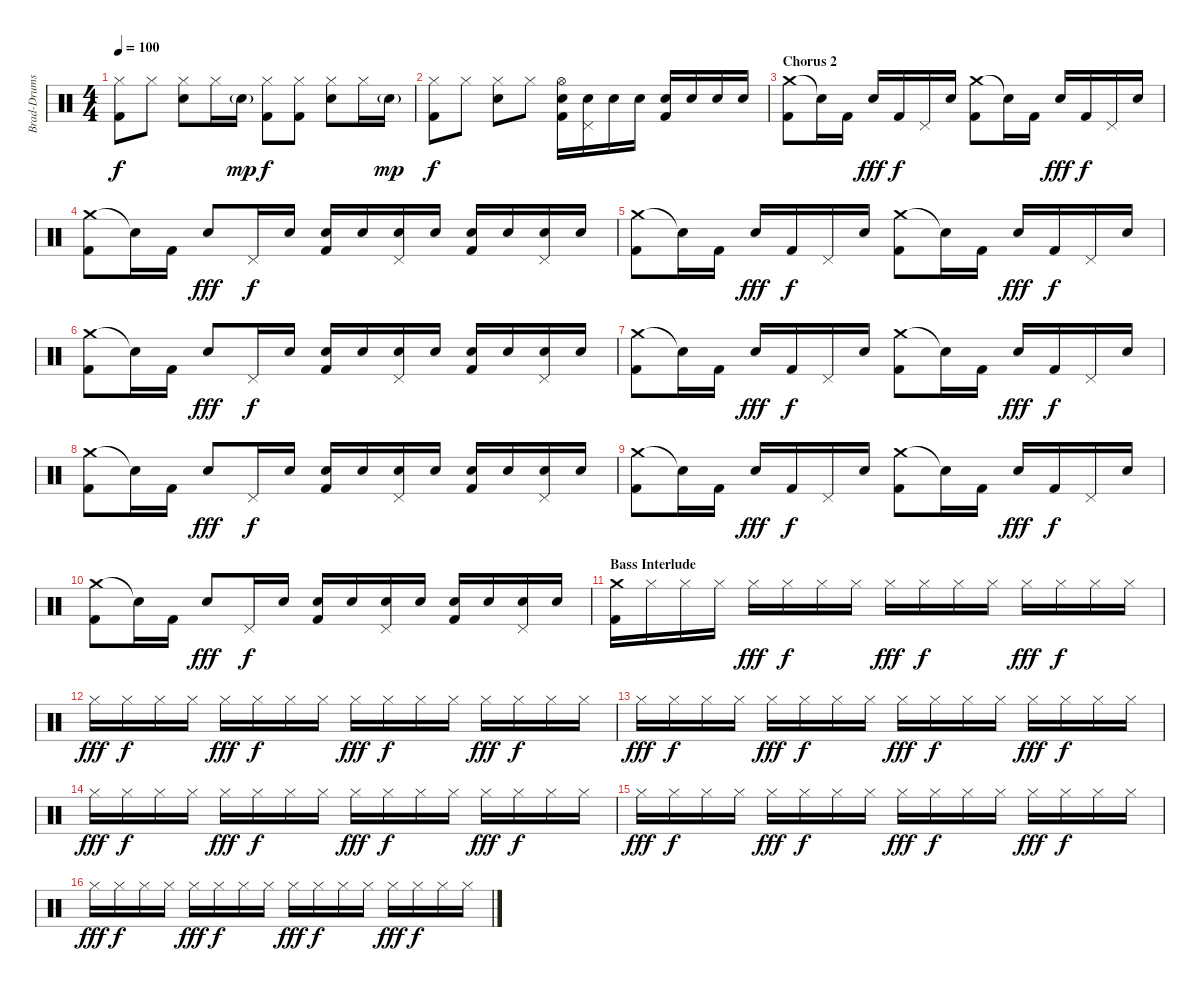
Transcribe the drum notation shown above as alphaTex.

\track ("Brad-Drums" "Brad-Drums") {instrument percussion}
\staff {score}
\articulation defaults
\ts (4 4)
\tempo 100
\clef neutral
\ks c
("Hi-Hat (closed)" "Kick (hit) 2").8{dy f} "Hi-Hat (closed)".8 ("Hi-Hat (closed)" "Electric Snare (hit)").8 "Hi-Hat (closed)".16 "Electric Snare (hit)"{g}.16{dy mp} ("Hi-Hat (closed)" "Kick (hit) 2").8{dy f} ("Hi-Hat (closed)" "Kick (hit) 2").8 ("Hi-Hat (closed)" "Electric Snare (hit)").8 "Hi-Hat (closed)".16 "Electric Snare (hit)"{g}.16{dy mp} |
("Hi-Hat (closed)" "Kick (hit) 2").8{dy f} "Hi-Hat (closed)".8 ("Hi-Hat (closed)" "Electric Snare (hit)").8 "Hi-Hat (closed)".8 ("Hi-Hat (open)" "Electric Snare (hit)" "Kick (hit) 2").16 ("Pedal Hi-Hat (hit)" "Electric Snare (hit)").16 "Electric Snare (hit)".16 "Electric Snare (hit)".16 ("Electric Snare (hit)" "Kick (hit) 2").16 "Electric Snare (hit)".16 "Electric Snare (hit)".16 "Electric Snare (hit)".16 |
\section ("" "Chorus 2")
("Crash medium (hit)" "Kick (hit) 2").8 "Snare (hit)"{t}.16 "Kick (hit) 2".16 "Electric Snare (hit)".16{dy fff} "Kick (hit) 2".16{dy f} "Pedal Hi-Hat (hit)".16 "Electric Snare (hit)".16 ("Crash medium (hit)" "Kick (hit) 2").8 "Snare (hit)"{t}.16 "Kick (hit) 2".16 "Electric Snare (hit)".16{dy fff} "Kick (hit) 2".16{dy f} "Pedal Hi-Hat (hit)".16 "Electric Snare (hit)".16 |
("Crash medium (hit)" "Kick (hit) 2").8 "Snare (hit)"{t}.16 "Kick (hit) 2".16 "Electric Snare (hit)".8{dy fff} "Pedal Hi-Hat (hit)".16{dy f} "Electric Snare (hit)".16 ("Electric Snare (hit)" "Kick (hit) 2").16 "Electric Snare (hit)".16 ("Pedal Hi-Hat (hit)" "Electric Snare (hit)").16 "Electric Snare (hit)".16 ("Electric Snare (hit)" "Kick (hit) 2").16 "Electric Snare (hit)".16 ("Pedal Hi-Hat (hit)" "Electric Snare (hit)").16 "Electric Snare (hit)".16 |
("Crash medium (hit)" "Kick (hit) 2").8 "Snare (hit)"{t}.16 "Kick (hit) 2".16 "Electric Snare (hit)".16{dy fff} "Kick (hit) 2".16{dy f} "Pedal Hi-Hat (hit)".16 "Electric Snare (hit)".16 ("Crash medium (hit)" "Kick (hit) 2").8 "Snare (hit)"{t}.16 "Kick (hit) 2".16 "Electric Snare (hit)".16{dy fff} "Kick (hit) 2".16{dy f} "Pedal Hi-Hat (hit)".16 "Electric Snare (hit)".16 |
("Crash medium (hit)" "Kick (hit) 2").8 "Snare (hit)"{t}.16 "Kick (hit) 2".16 "Electric Snare (hit)".8{dy fff} "Pedal Hi-Hat (hit)".16{dy f} "Electric Snare (hit)".16 ("Electric Snare (hit)" "Kick (hit) 2").16 "Electric Snare (hit)".16 ("Pedal Hi-Hat (hit)" "Electric Snare (hit)").16 "Electric Snare (hit)".16 ("Electric Snare (hit)" "Kick (hit) 2").16 "Electric Snare (hit)".16 ("Pedal Hi-Hat (hit)" "Electric Snare (hit)").16 "Electric Snare (hit)".16 |
("Crash medium (hit)" "Kick (hit) 2").8 "Snare (hit)"{t}.16 "Kick (hit) 2".16 "Electric Snare (hit)".16{dy fff} "Kick (hit) 2".16{dy f} "Pedal Hi-Hat (hit)".16 "Electric Snare (hit)".16 ("Crash medium (hit)" "Kick (hit) 2").8 "Snare (hit)"{t}.16 "Kick (hit) 2".16 "Electric Snare (hit)".16{dy fff} "Kick (hit) 2".16{dy f} "Pedal Hi-Hat (hit)".16 "Electric Snare (hit)".16 |
("Crash medium (hit)" "Kick (hit) 2").8 "Snare (hit)"{t}.16 "Kick (hit) 2".16 "Electric Snare (hit)".8{dy fff} "Pedal Hi-Hat (hit)".16{dy f} "Electric Snare (hit)".16 ("Electric Snare (hit)" "Kick (hit) 2").16 "Electric Snare (hit)".16 ("Pedal Hi-Hat (hit)" "Electric Snare (hit)").16 "Electric Snare (hit)".16 ("Electric Snare (hit)" "Kick (hit) 2").16 "Electric Snare (hit)".16 ("Pedal Hi-Hat (hit)" "Electric Snare (hit)").16 "Electric Snare (hit)".16 |
("Crash medium (hit)" "Kick (hit) 2").8 "Snare (hit)"{t}.16 "Kick (hit) 2".16 "Electric Snare (hit)".16{dy fff} "Kick (hit) 2".16{dy f} "Pedal Hi-Hat (hit)".16 "Electric Snare (hit)".16 ("Crash medium (hit)" "Kick (hit) 2").8 "Snare (hit)"{t}.16 "Kick (hit) 2".16 "Electric Snare (hit)".16{dy fff} "Kick (hit) 2".16{dy f} "Pedal Hi-Hat (hit)".16 "Electric Snare (hit)".16 |
("Crash medium (hit)" "Kick (hit) 2").8 "Snare (hit)"{t}.16 "Kick (hit) 2".16 "Electric Snare (hit)".8{dy fff} "Pedal Hi-Hat (hit)".16{dy f} "Electric Snare (hit)".16 ("Electric Snare (hit)" "Kick (hit) 2").16 "Electric Snare (hit)".16 ("Pedal Hi-Hat (hit)" "Electric Snare (hit)").16 "Electric Snare (hit)".16 ("Electric Snare (hit)" "Kick (hit) 2").16 "Electric Snare (hit)".16 ("Pedal Hi-Hat (hit)" "Electric Snare (hit)").16 "Electric Snare (hit)".16 |
\section ("" "Bass Interlude")
("Crash medium (hit)" "Kick (hit) 2").16 "Hi-Hat (closed)".16 "Hi-Hat (closed)".16 "Hi-Hat (closed)".16 "Hi-Hat (closed)".16{dy fff} "Hi-Hat (closed)".16{dy f} "Hi-Hat (closed)".16 "Hi-Hat (closed)".16 "Hi-Hat (closed)".16{dy fff} "Hi-Hat (closed)".16{dy f} "Hi-Hat (closed)".16 "Hi-Hat (closed)".16 "Hi-Hat (closed)".16{dy fff} "Hi-Hat (closed)".16{dy f} "Hi-Hat (closed)".16 "Hi-Hat (closed)".16 |
"Hi-Hat (closed)".16{dy fff} "Hi-Hat (closed)".16{dy f} "Hi-Hat (closed)".16 "Hi-Hat (closed)".16 "Hi-Hat (closed)".16{dy fff} "Hi-Hat (closed)".16{dy f} "Hi-Hat (closed)".16 "Hi-Hat (closed)".16 "Hi-Hat (closed)".16{dy fff} "Hi-Hat (closed)".16{dy f} "Hi-Hat (closed)".16 "Hi-Hat (closed)".16 "Hi-Hat (closed)".16{dy fff} "Hi-Hat (closed)".16{dy f} "Hi-Hat (closed)".16 "Hi-Hat (closed)".16 |
"Hi-Hat (closed)".16{dy fff} "Hi-Hat (closed)".16{dy f} "Hi-Hat (closed)".16 "Hi-Hat (closed)".16 "Hi-Hat (closed)".16{dy fff} "Hi-Hat (closed)".16{dy f} "Hi-Hat (closed)".16 "Hi-Hat (closed)".16 "Hi-Hat (closed)".16{dy fff} "Hi-Hat (closed)".16{dy f} "Hi-Hat (closed)".16 "Hi-Hat (closed)".16 "Hi-Hat (closed)".16{dy fff} "Hi-Hat (closed)".16{dy f} "Hi-Hat (closed)".16 "Hi-Hat (closed)".16 |
"Hi-Hat (closed)".16{dy fff} "Hi-Hat (closed)".16{dy f} "Hi-Hat (closed)".16 "Hi-Hat (closed)".16 "Hi-Hat (closed)".16{dy fff} "Hi-Hat (closed)".16{dy f} "Hi-Hat (closed)".16 "Hi-Hat (closed)".16 "Hi-Hat (closed)".16{dy fff} "Hi-Hat (closed)".16{dy f} "Hi-Hat (closed)".16 "Hi-Hat (closed)".16 "Hi-Hat (closed)".16{dy fff} "Hi-Hat (closed)".16{dy f} "Hi-Hat (closed)".16 "Hi-Hat (closed)".16 |
"Hi-Hat (closed)".16{dy fff} "Hi-Hat (closed)".16{dy f} "Hi-Hat (closed)".16 "Hi-Hat (closed)".16 "Hi-Hat (closed)".16{dy fff} "Hi-Hat (closed)".16{dy f} "Hi-Hat (closed)".16 "Hi-Hat (closed)".16 "Hi-Hat (closed)".16{dy fff} "Hi-Hat (closed)".16{dy f} "Hi-Hat (closed)".16 "Hi-Hat (closed)".16 "Hi-Hat (closed)".16{dy fff} "Hi-Hat (closed)".16{dy f} "Hi-Hat (closed)".16 "Hi-Hat (closed)".16 |
"Hi-Hat (closed)".16{dy fff} "Hi-Hat (closed)".16{dy f} "Hi-Hat (closed)".16 "Hi-Hat (closed)".16 "Hi-Hat (closed)".16{dy fff} "Hi-Hat (closed)".16{dy f} "Hi-Hat (closed)".16 "Hi-Hat (closed)".16 "Hi-Hat (closed)".16{dy fff} "Hi-Hat (closed)".16{dy f} "Hi-Hat (closed)".16 "Hi-Hat (closed)".16 "Hi-Hat (closed)".16{dy fff} "Hi-Hat (closed)".16{dy f} "Hi-Hat (closed)".16 "Hi-Hat (closed)".16
